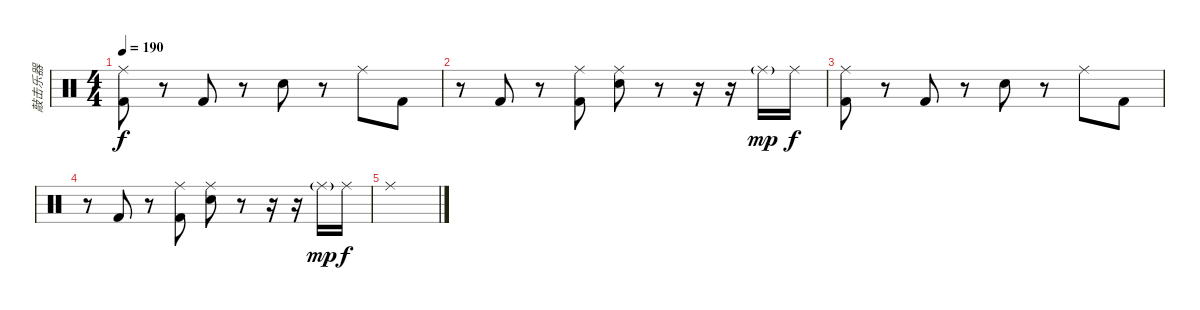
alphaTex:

\track ("敲击乐器" "敲击乐器") {instrument percussion}
\staff {score}
\articulation defaults
\ts (4 4)
\tempo 190
\clef neutral
\ks c
("Ride (middle)" "Kick (hit) 2").8{dy f} r.8 "Kick (hit) 2".8 r.8 "Electric Snare (hit)".8 r.8 "Ride (middle)".8 "Kick (hit) 2".8 |
r.8 "Kick (hit) 2".8 r.8 ("Ride (middle)" "Kick (hit) 2").8 ("Ride (middle)" "Electric Snare (hit)").8 r.8 r.16 r.16 "Ride (middle)"{g}.16{dy mp} "Ride (middle)".16{dy f} |
("Ride (middle)" "Kick (hit) 2").8 r.8 "Kick (hit) 2".8 r.8 "Electric Snare (hit)".8 r.8 "Ride (middle)".8 "Kick (hit) 2".8 |
r.8 "Kick (hit) 2".8 r.8 ("Ride (middle)" "Kick (hit) 2").8 ("Ride (middle)" "Electric Snare (hit)").8 r.8 r.16 r.16 "Ride (middle)"{g}.16{dy mp} "Ride (middle)".16{dy f} |
"Ride (middle)".1
